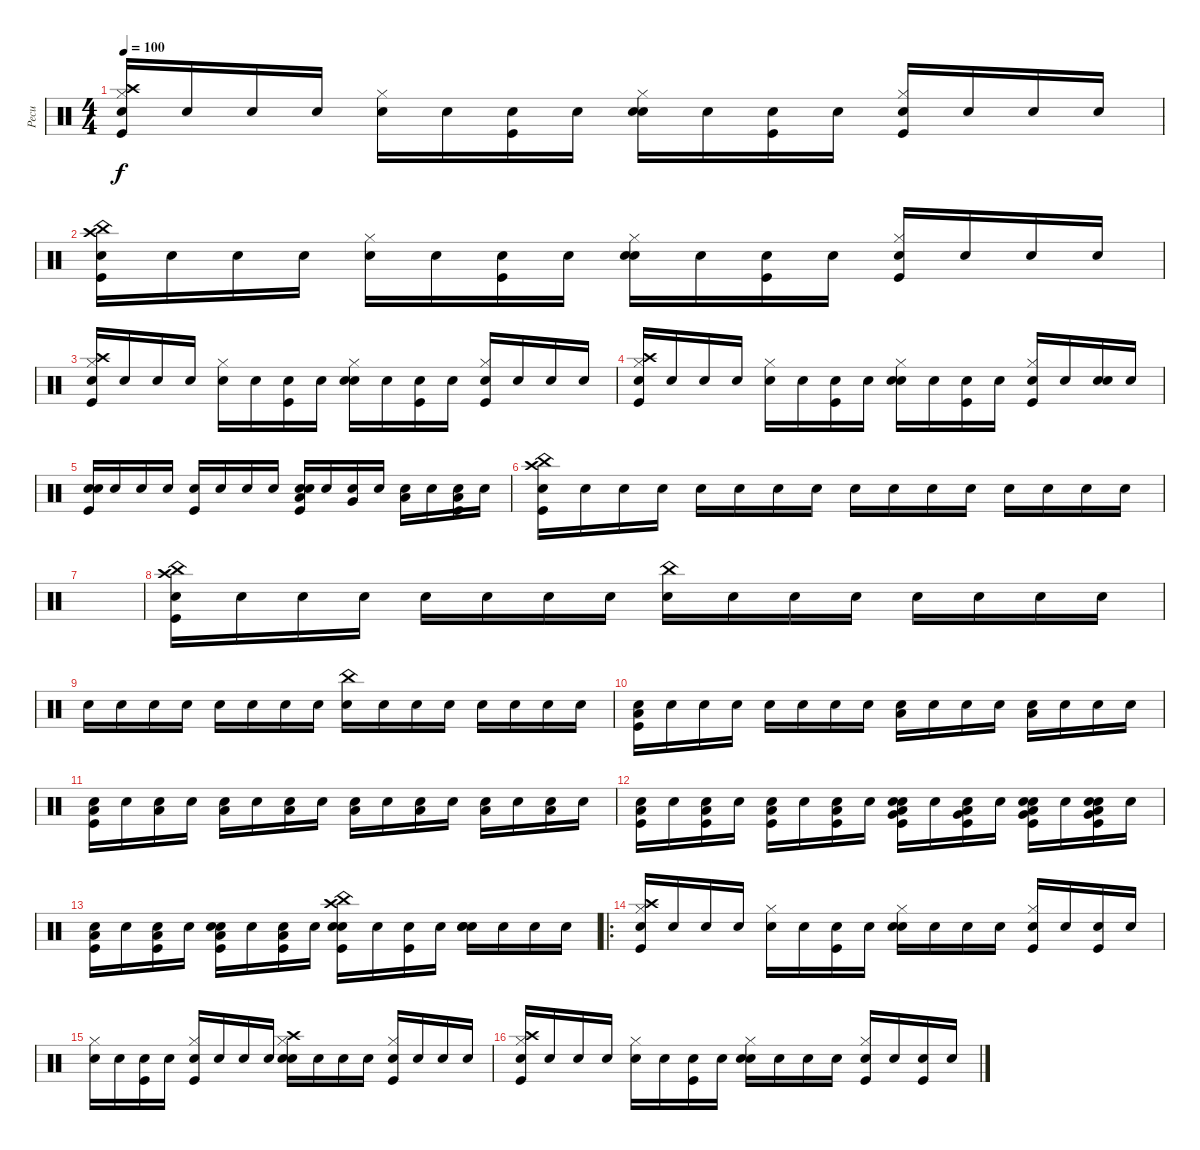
\track ("Pecu" "Pecu") {instrument percussion}
\staff {score}
\articulation defaults
\ts (4 4)
\tempo 100
\clef neutral
\ks c
("Snare (hit)" "Hi-Hat (closed)" "Crash high (hit)" "Kick (hit)").16{dy f} "Snare (hit)".16 "Snare (hit)".16 "Snare (hit)".16 ("Snare (hit)" "Hi-Hat (closed)").16 "Snare (hit)".16 ("Snare (hit)" "Kick (hit)").16 "Snare (hit)".16 ("Snare (hit)" "Hi-Hat (closed)" "Snare (hit) 2").16 "Snare (hit)".16 ("Snare (hit)" "Kick (hit)").16 "Snare (hit)".16 ("Snare (hit)" "Hi-Hat (closed)" "Kick (hit)").16 "Snare (hit)".16 "Snare (hit)".16 "Snare (hit)".16 |
("Snare (hit)" "Crash high (hit)" "China (hit)" "Kick (hit)").16 "Snare (hit)".16 "Snare (hit)".16 "Snare (hit)".16 ("Snare (hit)" "Hi-Hat (closed)").16 "Snare (hit)".16 ("Snare (hit)" "Kick (hit)").16 "Snare (hit)".16 ("Snare (hit)" "Hi-Hat (closed)" "Snare (hit) 2").16 "Snare (hit)".16 ("Snare (hit)" "Kick (hit)").16 "Snare (hit)".16 ("Snare (hit)" "Hi-Hat (closed)" "Kick (hit)").16 "Snare (hit)".16 "Snare (hit)".16 "Snare (hit)".16 |
("Snare (hit)" "Hi-Hat (closed)" "Crash high (hit)" "Kick (hit)").16 "Snare (hit)".16 "Snare (hit)".16 "Snare (hit)".16 ("Snare (hit)" "Hi-Hat (closed)").16 "Snare (hit)".16 ("Snare (hit)" "Kick (hit)").16 "Snare (hit)".16 ("Snare (hit)" "Hi-Hat (closed)" "Snare (hit) 2").16 "Snare (hit)".16 ("Snare (hit)" "Kick (hit)").16 "Snare (hit)".16 ("Snare (hit)" "Hi-Hat (closed)" "Kick (hit)").16 "Snare (hit)".16 "Snare (hit)".16 "Snare (hit)".16 |
("Snare (hit)" "Hi-Hat (closed)" "Crash high (hit)" "Kick (hit)").16 "Snare (hit)".16 "Snare (hit)".16 "Snare (hit)".16 ("Snare (hit)" "Hi-Hat (closed)").16 "Snare (hit)".16 ("Snare (hit)" "Kick (hit)").16 "Snare (hit)".16 ("Snare (hit)" "Hi-Hat (closed)" "Snare (hit) 2").16 "Snare (hit)".16 ("Snare (hit)" "Kick (hit)").16 "Snare (hit)".16 ("Snare (hit)" "Hi-Hat (closed)" "Kick (hit)").16 "Snare (hit)".16 ("Snare (hit)" "Snare (hit) 2").16 "Snare (hit)".16 |
("Snare (hit)" "Snare (hit) 2" "Kick (hit)").16 "Snare (hit)".16 "Snare (hit)".16 "Snare (hit)".16 ("Snare (hit)" "Kick (hit)").16 "Snare (hit)".16 "Snare (hit)".16 "Snare (hit)".16 ("Snare (hit)" "Snare (hit)" "Low Tom (hit)" "Kick (hit)").16 "Snare (hit)".16 ("Snare (hit)" "Very Low Tom (hit)").16 "Snare (hit)".16 ("Snare (hit)" "Low Floor Tom (hit)").16 "Snare (hit)".16 ("Snare (hit)" "Low Floor Tom (hit)" "Kick (hit)").16 "Snare (hit)".16 |
("Snare (hit)" "China (hit)" "Crash high (hit)" "Kick (hit)").16 "Snare (hit)".16 "Snare (hit)".16 "Snare (hit)".16 "Snare (hit)".16 "Snare (hit)".16 "Snare (hit)".16 "Snare (hit)".16 "Snare (hit)".16 "Snare (hit)".16 "Snare (hit)".16 "Snare (hit)".16 "Snare (hit)".16 "Snare (hit)".16 "Snare (hit)".16 "Snare (hit)".16 |
|
("Snare (hit)" "China (hit)" "Crash high (hit)" "Kick (hit)").16 "Snare (hit)".16 "Snare (hit)".16 "Snare (hit)".16 "Snare (hit)".16 "Snare (hit)".16 "Snare (hit)".16 "Snare (hit)".16 ("Snare (hit)" "China (hit)").16 "Snare (hit)".16 "Snare (hit)".16 "Snare (hit)".16 "Snare (hit)".16 "Snare (hit)".16 "Snare (hit)".16 "Snare (hit)".16 |
"Snare (hit)".16 "Snare (hit)".16 "Snare (hit)".16 "Snare (hit)".16 "Snare (hit)".16 "Snare (hit)".16 "Snare (hit)".16 "Snare (hit)".16 ("Snare (hit)" "China (hit)").16 "Snare (hit)".16 "Snare (hit)".16 "Snare (hit)".16 "Snare (hit)".16 "Snare (hit)".16 "Snare (hit)".16 "Snare (hit)".16 |
("Snare (hit)" "Kick (hit)" "Low Floor Tom (hit)").16 "Snare (hit)".16 "Snare (hit)".16 "Snare (hit)".16 "Snare (hit)".16 "Snare (hit)".16 "Snare (hit)".16 "Snare (hit)".16 ("Snare (hit)" "Low Floor Tom (hit)").16 "Snare (hit)".16 "Snare (hit)".16 "Snare (hit)".16 ("Snare (hit)" "Low Floor Tom (hit)").16 "Snare (hit)".16 "Snare (hit)".16 "Snare (hit)".16 |
("Snare (hit)" "Kick (hit)" "Low Floor Tom (hit)").16 "Snare (hit)".16 ("Snare (hit)" "Low Floor Tom (hit)").16 "Snare (hit)".16 ("Snare (hit)" "Low Floor Tom (hit)").16 "Snare (hit)".16 ("Snare (hit)" "Low Floor Tom (hit)").16 "Snare (hit)".16 ("Snare (hit)" "Low Floor Tom (hit)").16 "Snare (hit)".16 ("Snare (hit)" "Low Floor Tom (hit)").16 "Snare (hit)".16 ("Snare (hit)" "Low Floor Tom (hit)").16 "Snare (hit)".16 ("Snare (hit)" "Low Floor Tom (hit)").16 "Snare (hit)".16 |
("Snare (hit)" "Kick (hit)" "Low Floor Tom (hit)").16 "Snare (hit)".16 ("Snare (hit)" "Kick (hit)" "Low Floor Tom (hit)").16 "Snare (hit)".16 ("Snare (hit)" "Kick (hit)" "Low Floor Tom (hit)").16 "Snare (hit)".16 ("Snare (hit)" "Kick (hit)" "Low Floor Tom (hit)").16 "Snare (hit)".16 ("Snare (hit)" "Very Low Tom (hit)" "Kick (hit)" "Low Floor Tom (hit)" "Snare (hit) 2").16 "Snare (hit)".16 ("Snare (hit)" "Very Low Tom (hit)" "Kick (hit)" "Low Floor Tom (hit)").16 "Snare (hit)".16 ("Snare (hit)" "Very Low Tom (hit)" "Kick (hit)" "Low Floor Tom (hit)" "Snare (hit) 2").16 "Snare (hit)".16 ("Snare (hit)" "Very Low Tom (hit)" "Kick (hit)" "Low Floor Tom (hit)" "Snare (hit) 2").16 "Snare (hit)".16 |
("Snare (hit)" "Kick (hit)" "Low Floor Tom (hit)").16 "Snare (hit)".16 ("Snare (hit)" "Kick (hit)" "Low Floor Tom (hit)").16 "Snare (hit)".16 ("Snare (hit)" "Snare (hit) 2" "Kick (hit)" "Low Floor Tom (hit)").16 "Snare (hit)".16 ("Snare (hit)" "Kick (hit)" "Low Floor Tom (hit)").16 "Snare (hit)".16 ("Snare (hit)" "Crash high (hit)" "Kick (hit)" "China (hit)" "Snare (hit) 2").16 "Snare (hit)".16 ("Snare (hit)" "Kick (hit)").16 "Snare (hit)".16 ("Snare (hit)" "Snare (hit) 2" "Snare (hit) 2").16 "Snare (hit)".16 "Snare (hit)".16 "Snare (hit)".16 |
\ro
("Snare (hit)" "Hi-Hat (closed)" "Crash high (hit)" "Kick (hit)").16 "Snare (hit)".16 "Snare (hit)".16 "Snare (hit)".16 ("Snare (hit)" "Hi-Hat (closed)").16 "Snare (hit)".16 ("Snare (hit)" "Kick (hit)").16 "Snare (hit)".16 ("Snare (hit)" "Hi-Hat (closed)" "Snare (hit) 2").16 "Snare (hit)".16 "Snare (hit)".16 "Snare (hit)".16 ("Snare (hit)" "Hi-Hat (closed)" "Kick (hit)").16 "Snare (hit)".16 ("Snare (hit)" "Kick (hit)").16 "Snare (hit)".16 |
("Snare (hit)" "Hi-Hat (closed)").16 "Snare (hit)".16 ("Snare (hit)" "Kick (hit)").16 "Snare (hit)".16 ("Snare (hit)" "Hi-Hat (closed)" "Kick (hit)").16 "Snare (hit)".16 "Snare (hit)".16 "Snare (hit)".16 ("Snare (hit)" "Hi-Hat (closed)" "Snare (hit) 2" "Crash high (hit)").16 "Snare (hit)".16 "Snare (hit)".16 "Snare (hit)".16 ("Snare (hit)" "Hi-Hat (closed)" "Kick (hit)").16 "Snare (hit)".16 "Snare (hit)".16 "Snare (hit)".16 |
("Snare (hit)" "Hi-Hat (closed)" "Crash high (hit)" "Kick (hit)").16 "Snare (hit)".16 "Snare (hit)".16 "Snare (hit)".16 ("Snare (hit)" "Hi-Hat (closed)").16 "Snare (hit)".16 ("Snare (hit)" "Kick (hit)").16 "Snare (hit)".16 ("Snare (hit)" "Hi-Hat (closed)" "Snare (hit) 2").16 "Snare (hit)".16 "Snare (hit)".16 "Snare (hit)".16 ("Snare (hit)" "Hi-Hat (closed)" "Kick (hit)").16 "Snare (hit)".16 ("Snare (hit)" "Kick (hit)").16 "Snare (hit)".16
